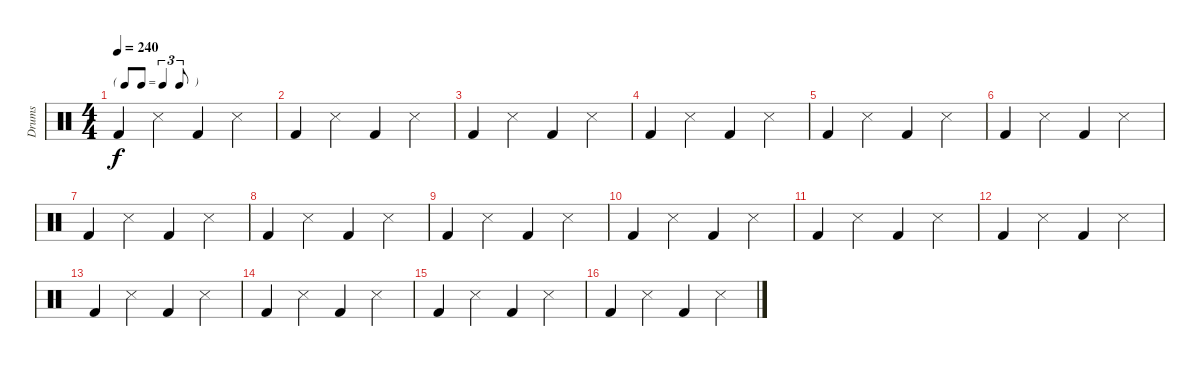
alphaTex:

\track ("Drums" "Drums") {instrument percussion}
\staff {score}
\articulation defaults
\ts (4 4)
\tf triplet8th
\tempo 240
\clef neutral
\ks c "Kick (hit) 2".4{dy f} "Snare (side stick) 3".4 "Kick (hit) 2".4 "Snare (side stick) 3".4
|
"Kick (hit) 2".4 "Snare (side stick) 3".4 "Kick (hit) 2".4 "Snare (side stick) 3".4 |
"Kick (hit) 2".4 "Snare (side stick) 3".4 "Kick (hit) 2".4 "Snare (side stick) 3".4 |
"Kick (hit) 2".4 "Snare (side stick) 3".4 "Kick (hit) 2".4 "Snare (side stick) 3".4 |
"Kick (hit) 2".4 "Snare (side stick) 3".4 "Kick (hit) 2".4 "Snare (side stick) 3".4 |
"Kick (hit) 2".4 "Snare (side stick) 3".4 "Kick (hit) 2".4 "Snare (side stick) 3".4 |
"Kick (hit) 2".4 "Snare (side stick) 3".4 "Kick (hit) 2".4 "Snare (side stick) 3".4 |
"Kick (hit) 2".4 "Snare (side stick) 3".4 "Kick (hit) 2".4 "Snare (side stick) 3".4 |
"Kick (hit) 2".4 "Snare (side stick) 3".4 "Kick (hit) 2".4 "Snare (side stick) 3".4 |
"Kick (hit) 2".4 "Snare (side stick) 3".4 "Kick (hit) 2".4 "Snare (side stick) 3".4 |
"Kick (hit) 2".4 "Snare (side stick) 3".4 "Kick (hit) 2".4 "Snare (side stick) 3".4 |
"Kick (hit) 2".4 "Snare (side stick) 3".4 "Kick (hit) 2".4 "Snare (side stick) 3".4 |
"Kick (hit) 2".4 "Snare (side stick) 3".4 "Kick (hit) 2".4 "Snare (side stick) 3".4 |
"Kick (hit) 2".4 "Snare (side stick) 3".4 "Kick (hit) 2".4 "Snare (side stick) 3".4 |
"Kick (hit) 2".4 "Snare (side stick) 3".4 "Kick (hit) 2".4 "Snare (side stick) 3".4 |
"Kick (hit) 2".4 "Snare (side stick) 3".4 "Kick (hit) 2".4 "Snare (side stick) 3".4
